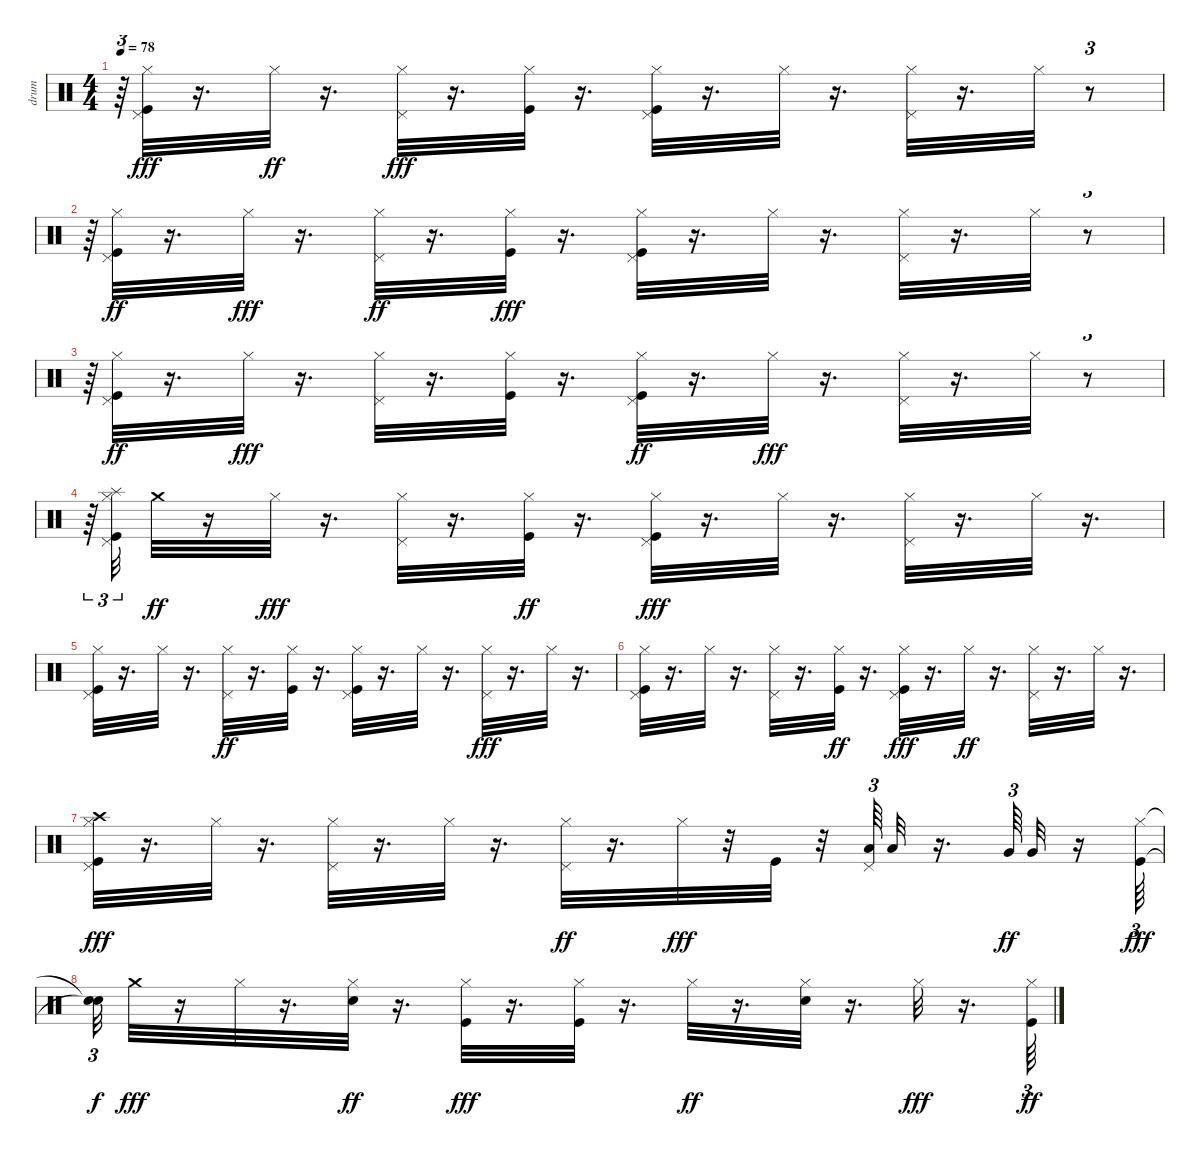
\track ("drum" "drum") {instrument percussion}
\staff {score}
\articulation defaults
\ts (4 4)
\tempo 78
\clef neutral
\ks c
r.64{tu (3 2) dy fff} ("Pedal Hi-Hat (hit)" "Kick (hit)" "Hi-Hat (closed)").32 r.16{d} "Hi-Hat (closed)".32{dy ff} r.16{d} ("Pedal Hi-Hat (hit)" "Hi-Hat (closed)").32{dy fff} r.16{d} ("Kick (hit)" "Hi-Hat (closed)").32 r.16{d} ("Pedal Hi-Hat (hit)" "Kick (hit)" "Hi-Hat (closed)").32 r.16{d} "Hi-Hat (closed)".32 r.16{d} ("Pedal Hi-Hat (hit)" "Hi-Hat (closed)").32 r.16{d} "Hi-Hat (closed)".32 r.8{tu (3 2)} |
r.64{tu (3 2)} ("Pedal Hi-Hat (hit)" "Kick (hit)" "Hi-Hat (closed)").32{dy ff} r.16{d} "Hi-Hat (closed)".32{dy fff} r.16{d} ("Pedal Hi-Hat (hit)" "Hi-Hat (closed)").32{dy ff} r.16{d} ("Kick (hit)" "Hi-Hat (closed)").32{dy fff} r.16{d} ("Pedal Hi-Hat (hit)" "Kick (hit)" "Hi-Hat (closed)").32 r.16{d} "Hi-Hat (closed)".32 r.16{d} ("Pedal Hi-Hat (hit)" "Hi-Hat (closed)").32 r.16{d} "Hi-Hat (closed)".32 r.8{tu (3 2)} |
r.64{tu (3 2)} ("Pedal Hi-Hat (hit)" "Kick (hit)" "Hi-Hat (closed)").32{dy ff} r.16{d} "Hi-Hat (closed)".32{dy fff} r.16{d} ("Pedal Hi-Hat (hit)" "Hi-Hat (closed)").32 r.16{d} ("Kick (hit)" "Hi-Hat (closed)").32 r.16{d} ("Pedal Hi-Hat (hit)" "Kick (hit)" "Hi-Hat (closed)").32{dy ff} r.16{d} "Hi-Hat (closed)".32{dy fff} r.16{d} ("Pedal Hi-Hat (hit)" "Hi-Hat (closed)").32 r.16{d} "Hi-Hat (closed)".32 r.8{tu (3 2)} |
r.64{tu (3 2)} ("Splash (hit)" "Pedal Hi-Hat (hit)" "Kick (hit)" "Hi-Hat (closed)").32{tu (3 2)} "Crash medium (hit)".32{dy ff} r.16 "Hi-Hat (closed)".32{dy fff} r.16{d} ("Pedal Hi-Hat (hit)" "Hi-Hat (closed)").32 r.16{d} ("Kick (hit)" "Hi-Hat (closed)").32{dy ff} r.16{d} ("Pedal Hi-Hat (hit)" "Kick (hit)" "Hi-Hat (closed)").32{dy fff} r.16{d} "Hi-Hat (closed)".32 r.16{d} ("Pedal Hi-Hat (hit)" "Hi-Hat (closed)").32 r.16{d} "Hi-Hat (closed)".32 r.16{d} |
("Pedal Hi-Hat (hit)" "Kick (hit)" "Hi-Hat (closed)").32 r.16{d} "Hi-Hat (closed)".32 r.16{d} ("Pedal Hi-Hat (hit)" "Hi-Hat (closed)").32{dy ff} r.16{d} ("Kick (hit)" "Hi-Hat (closed)").32 r.16{d} ("Pedal Hi-Hat (hit)" "Kick (hit)" "Hi-Hat (closed)").32 r.16{d} "Hi-Hat (closed)".32 r.16{d} ("Pedal Hi-Hat (hit)" "Hi-Hat (closed)").32{dy fff} r.16{d} "Hi-Hat (closed)".32 r.16{d} |
("Pedal Hi-Hat (hit)" "Kick (hit)" "Hi-Hat (closed)").32 r.16{d} "Hi-Hat (closed)".32 r.16{d} ("Pedal Hi-Hat (hit)" "Hi-Hat (closed)").32 r.16{d} ("Kick (hit)" "Hi-Hat (closed)").32{dy ff} r.16{d} ("Pedal Hi-Hat (hit)" "Kick (hit)" "Hi-Hat (closed)").32{dy fff} r.16{d} "Hi-Hat (closed)".32{dy ff} r.16{d} ("Pedal Hi-Hat (hit)" "Hi-Hat (closed)").32 r.16{d} "Hi-Hat (closed)".32 r.16{d} |
("Pedal Hi-Hat (hit)" "Crash high (hit)" "Kick (hit)" "Hi-Hat (closed)").32{dy fff} r.16{d} "Hi-Hat (closed)".32 r.16{d} ("Pedal Hi-Hat (hit)" "Hi-Hat (closed)").32 r.16{d} "Hi-Hat (closed)".32 r.16{d} ("Pedal Hi-Hat (hit)" "Hi-Hat (closed)").32{dy ff} r.16{d} "Hi-Hat (closed)".32{dy fff} r.32 "Kick (hit)".32 r.32 ("Low Tom (hit)" "Pedal Hi-Hat (hit)").64{tu (3 2)} "Low Tom (hit)".32 r.16{d} "Very Low Tom (hit)".64{tu (3 2) dy ff} "Very Low Tom (hit)".32 r.16 ("Kick (hit)" "Hi-Hat (closed)").64{tu (3 2) dy fff} |
("Snare (hit)"{t} "Snare (hit)"{t}).32{tu (3 2) dy f} "Crash medium (hit)".32{dy fff} r.16 "Hi-Hat (closed)".32 r.16{d} ("Electric Snare (hit)" "Hi-Hat (closed)").32{dy ff} r.16{d} ("Kick (hit)" "Hi-Hat (closed)").32{dy fff} r.16{d} ("Kick (hit)" "Hi-Hat (closed)").32 r.16{d} "Hi-Hat (closed)".32{dy ff} r.16{d} ("Electric Snare (hit)" "Hi-Hat (closed)").32 r.16{d} "Hi-Hat (closed)".32{dy fff} r.16{d} ("Kick (hit)" "Hi-Hat (closed)").64{tu (3 2) dy ff}
